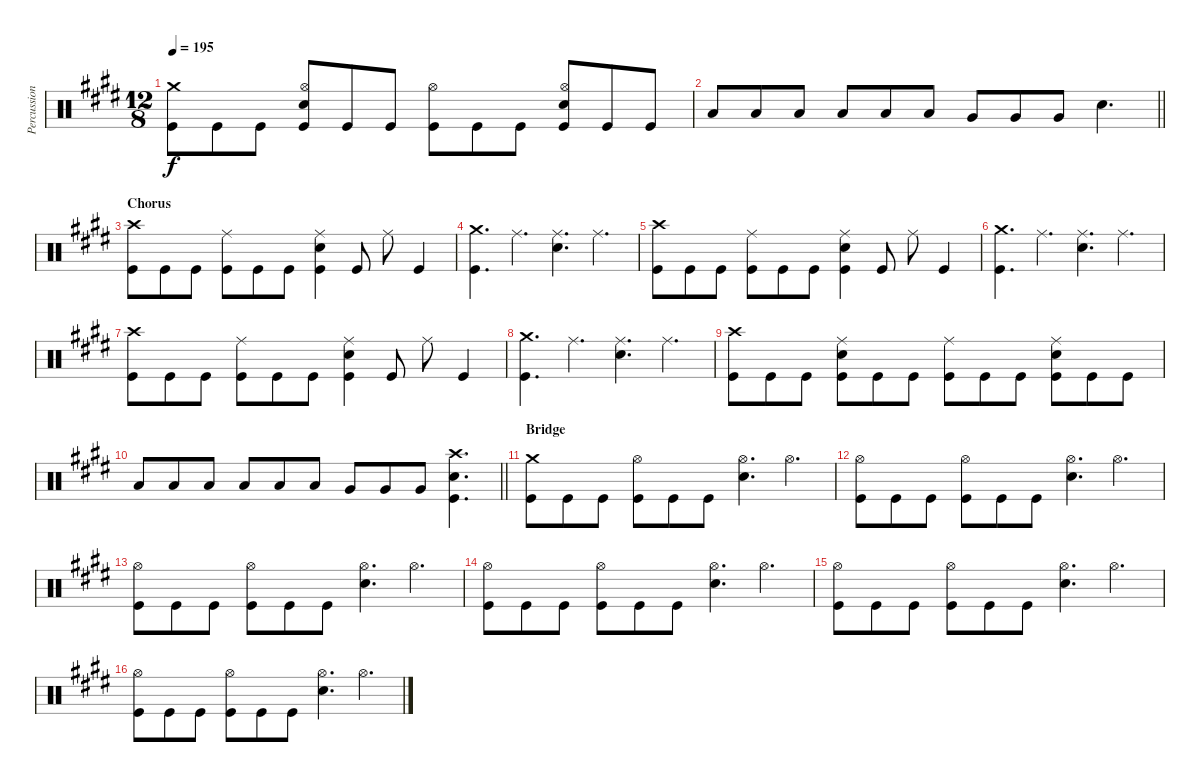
\track ("Percussion" "Percussion") {instrument percussion}
\staff {score}
\articulation defaults
\ts (12 8)
\section ("" "")
\tempo 195
\clef neutral
\ks e
("Crash medium (hit)" "Kick (hit)").8{dy f} "Kick (hit)".8 "Kick (hit)".8 ("Hi-Hat (open)" "Electric Snare (hit)" "Kick (hit)").8 "Kick (hit)".8 "Kick (hit)".8 ("Hi-Hat (open)" "Kick (hit)").8 "Kick (hit)".8 "Kick (hit)".8 ("Hi-Hat (open)" "Electric Snare (hit)" "Kick (hit)").8 "Kick (hit)".8 "Kick (hit)".8 |
\barLineRight lightlight "Low Tom (hit)".8 "Low Tom (hit)".8 "Low Tom (hit)".8 "Low Tom (hit)".8 "Low Tom (hit)".8 "Low Tom (hit)".8 "Very Low Tom (hit)".8 "Very Low Tom (hit)".8 "Very Low Tom (hit)".8 "Electric Snare (hit)".4{d}
|
\section ("" "Chorus")
("Crash high (hit)" "Kick (hit)").8 "Kick (hit)".8 "Kick (hit)".8 ("Ride (middle)" "Kick (hit)").8 "Kick (hit)".8 "Kick (hit)".8 ("Ride (middle)" "Electric Snare (hit)" "Kick (hit)").4 "Kick (hit)".8 "Ride (middle)".8 "Kick (hit)".4 |
("Crash medium (hit)" "Kick (hit)").4{d} "Ride (middle)".4{d} ("Ride (middle)" "Electric Snare (hit)").4{d} "Ride (middle)".4{d} |
("Crash high (hit)" "Kick (hit)").8 "Kick (hit)".8 "Kick (hit)".8 ("Ride (middle)" "Kick (hit)").8 "Kick (hit)".8 "Kick (hit)".8 ("Ride (middle)" "Electric Snare (hit)" "Kick (hit)").4 "Kick (hit)".8 "Ride (middle)".8 "Kick (hit)".4 |
("Crash medium (hit)" "Kick (hit)").4{d} "Ride (middle)".4{d} ("Ride (middle)" "Electric Snare (hit)").4{d} "Ride (middle)".4{d} |
("Crash high (hit)" "Kick (hit)").8 "Kick (hit)".8 "Kick (hit)".8 ("Ride (middle)" "Kick (hit)").8 "Kick (hit)".8 "Kick (hit)".8 ("Ride (middle)" "Electric Snare (hit)" "Kick (hit)").4 "Kick (hit)".8 "Ride (middle)".8 "Kick (hit)".4 |
("Crash medium (hit)" "Kick (hit)").4{d} "Ride (middle)".4{d} ("Ride (middle)" "Electric Snare (hit)").4{d} "Ride (middle)".4{d} |
("Crash high (hit)" "Kick (hit)").8 "Kick (hit)".8 "Kick (hit)".8 ("Ride (middle)" "Electric Snare (hit)" "Kick (hit)").8 "Kick (hit)".8 "Kick (hit)".8 ("Ride (middle)" "Kick (hit)").8 "Kick (hit)".8 "Kick (hit)".8 ("Ride (middle)" "Electric Snare (hit)" "Kick (hit)").8 "Kick (hit)".8 "Kick (hit)".8 |
\barLineRight lightlight "Low Tom (hit)".8 "Low Tom (hit)".8 "Low Tom (hit)".8 "Low Tom (hit)".8 "Low Tom (hit)".8 "Low Tom (hit)".8 "Very Low Tom (hit)".8 "Very Low Tom (hit)".8 "Very Low Tom (hit)".8
("Crash high (hit)" "Electric Snare (hit)" "Kick (hit)").4{d} |
\section ("" "Bridge")
("Crash medium (hit)" "Kick (hit)").8 "Kick (hit)".8 "Kick (hit)".8 ("Hi-Hat (open)" "Kick (hit)").8 "Kick (hit)".8 "Kick (hit)".8 ("Hi-Hat (open)" "Electric Snare (hit)").4{d} "Hi-Hat (open)".4{d} |
("Hi-Hat (open)" "Kick (hit)").8 "Kick (hit)".8 "Kick (hit)".8 ("Hi-Hat (open)" "Kick (hit)").8 "Kick (hit)".8 "Kick (hit)".8 ("Hi-Hat (open)" "Electric Snare (hit)").4{d} "Hi-Hat (open)".4{d} |
("Hi-Hat (open)" "Kick (hit)").8 "Kick (hit)".8 "Kick (hit)".8 ("Hi-Hat (open)" "Kick (hit)").8 "Kick (hit)".8 "Kick (hit)".8 ("Hi-Hat (open)" "Electric Snare (hit)").4{d} "Hi-Hat (open)".4{d} |
("Hi-Hat (open)" "Kick (hit)").8 "Kick (hit)".8 "Kick (hit)".8 ("Hi-Hat (open)" "Kick (hit)").8 "Kick (hit)".8 "Kick (hit)".8 ("Hi-Hat (open)" "Electric Snare (hit)").4{d} "Hi-Hat (open)".4{d} |
("Hi-Hat (open)" "Kick (hit)").8 "Kick (hit)".8 "Kick (hit)".8 ("Hi-Hat (open)" "Kick (hit)").8 "Kick (hit)".8 "Kick (hit)".8 ("Hi-Hat (open)" "Electric Snare (hit)").4{d} "Hi-Hat (open)".4{d} |
("Hi-Hat (open)" "Kick (hit)").8 "Kick (hit)".8 "Kick (hit)".8 ("Hi-Hat (open)" "Kick (hit)").8 "Kick (hit)".8 "Kick (hit)".8 ("Hi-Hat (open)" "Electric Snare (hit)").4{d} "Hi-Hat (open)".4{d}
